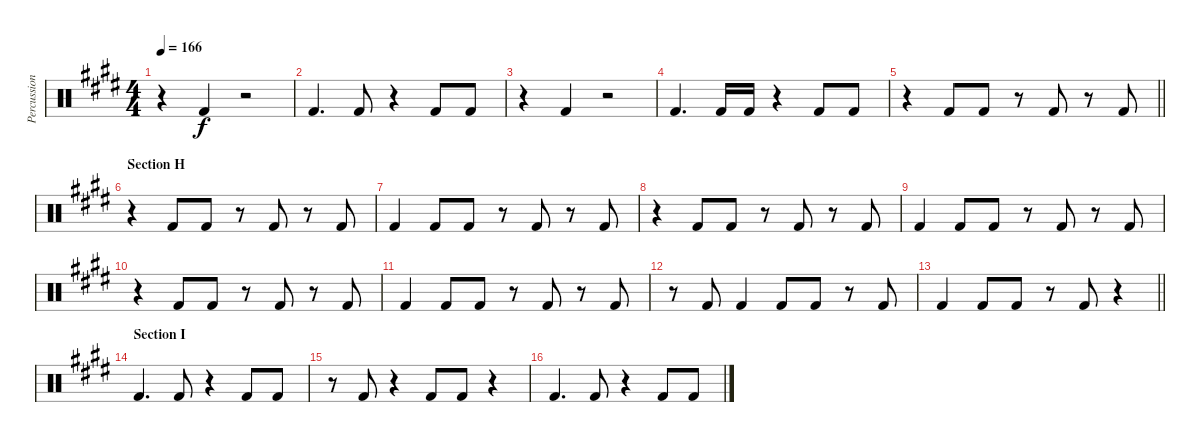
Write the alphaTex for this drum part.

\track ("Percussion - Other Again" "Percussion") {instrument percussion}
\staff {score}
\articulation defaults
\ts (4 4)
\tempo 166
\clef neutral
\ks e
r.4{dy f} "Kick (hit) 2".4 r.2 |
"Kick (hit) 2".4{d} "Kick (hit) 2".8 r.4 "Kick (hit) 2".8 "Kick (hit) 2".8 |
r.4 "Kick (hit) 2".4 r.2 |
"Kick (hit) 2".4{d} "Kick (hit) 2".16 "Kick (hit) 2".16 r.4 "Kick (hit) 2".8 "Kick (hit) 2".8 |
\barLineRight lightlight
r.4 "Kick (hit) 2".8 "Kick (hit) 2".8 r.8 "Kick (hit) 2".8 r.8 "Kick (hit) 2".8 |
\section ("" "Section H")
r.4 "Kick (hit) 2".8 "Kick (hit) 2".8 r.8 "Kick (hit) 2".8 r.8 "Kick (hit) 2".8 |
"Kick (hit) 2".4 "Kick (hit) 2".8 "Kick (hit) 2".8 r.8 "Kick (hit) 2".8 r.8 "Kick (hit) 2".8 |
r.4 "Kick (hit) 2".8 "Kick (hit) 2".8 r.8 "Kick (hit) 2".8 r.8 "Kick (hit) 2".8 |
"Kick (hit) 2".4 "Kick (hit) 2".8 "Kick (hit) 2".8 r.8 "Kick (hit) 2".8 r.8 "Kick (hit) 2".8 |
r.4 "Kick (hit) 2".8 "Kick (hit) 2".8 r.8 "Kick (hit) 2".8 r.8 "Kick (hit) 2".8 |
"Kick (hit) 2".4 "Kick (hit) 2".8 "Kick (hit) 2".8 r.8 "Kick (hit) 2".8 r.8 "Kick (hit) 2".8 |
r.8 "Kick (hit) 2".8 "Kick (hit) 2".4 "Kick (hit) 2".8 "Kick (hit) 2".8 r.8 "Kick (hit) 2".8 |
\barLineRight lightlight "Kick (hit) 2".4 "Kick (hit) 2".8 "Kick (hit) 2".8
r.8 "Kick (hit) 2".8 r.4 |
\section ("" "Section I")
"Kick (hit) 2".4{d} "Kick (hit) 2".8 r.4 "Kick (hit) 2".8 "Kick (hit) 2".8 |
r.8 "Kick (hit) 2".8 r.4 "Kick (hit) 2".8 "Kick (hit) 2".8 r.4 |
"Kick (hit) 2".4{d} "Kick (hit) 2".8 r.4 "Kick (hit) 2".8 "Kick (hit) 2".8
